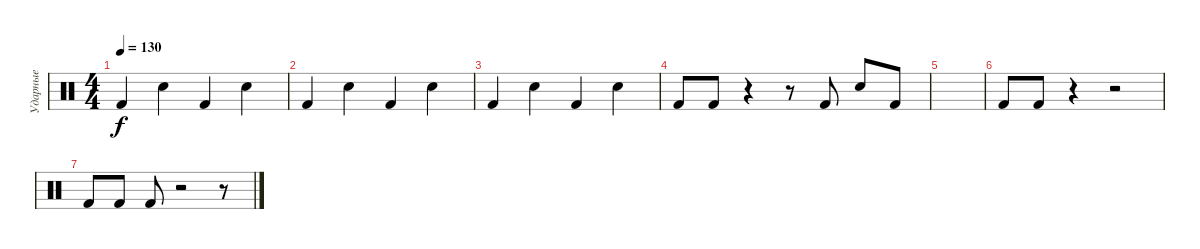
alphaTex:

\track ("Ударные" "Ударные") {instrument percussion}
\staff {score}
\articulation defaults
\ts (4 4)
\tempo 130
\clef neutral
\ks c "Kick (hit) 2".4{dy f} "Electric Snare (hit)".4 "Kick (hit) 2".4 "Electric Snare (hit)".4
|
"Kick (hit) 2".4 "Electric Snare (hit)".4 "Kick (hit) 2".4 "Electric Snare (hit)".4 |
"Kick (hit) 2".4 "Electric Snare (hit)".4 "Kick (hit) 2".4 "Electric Snare (hit)".4 |
"Kick (hit) 2".8 "Kick (hit) 2".8 r.4 r.8 "Kick (hit) 2".8 "Electric Snare (hit)".8 "Kick (hit) 2".8 |
|
"Kick (hit) 2".8 "Kick (hit) 2".8 r.4 r.2 |
"Kick (hit) 2".8 "Kick (hit) 2".8 "Kick (hit) 2".8 r.2 r.8
